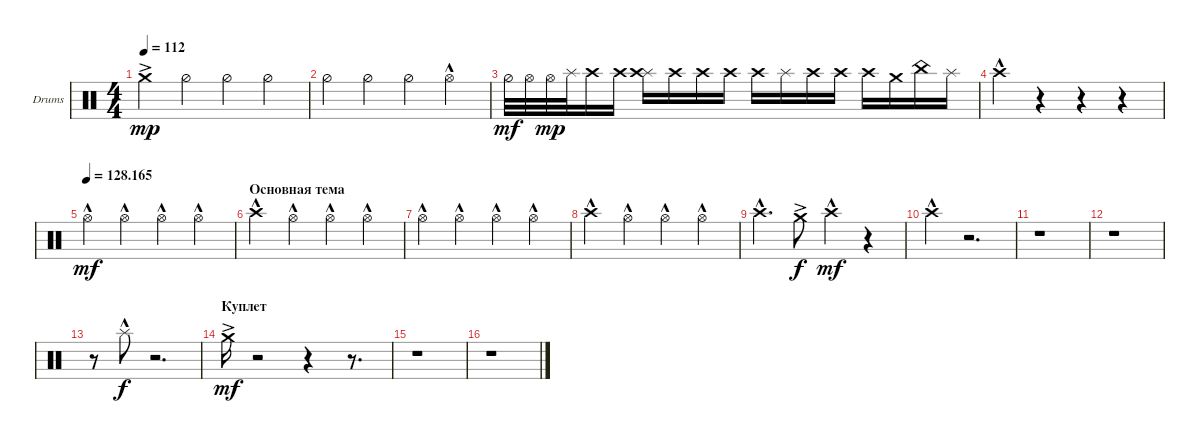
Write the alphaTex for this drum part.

\defaultSystemsLayout 4
\bracketExtendMode groupsimilarinstruments
\firstSystemTrackNameOrientation horizontal
\otherSystemsTrackNameOrientation horizontal
\track ("Drumkit" "Drums") {instrument percussion}
\staff {score}
\articulation defaults
\ts (4 4)
\tempo 112
\clef neutral
\scale
0.333333
\ks c "Crash medium (hit)"{ac}.4{dy mp} "Hi-Hat (half)".4 "Hi-Hat (half)".4 "Hi-Hat (half)".4
|
\scale
0.333333 "Hi-Hat (half)".4 "Hi-Hat (half)".4 "Hi-Hat (half)".4 "Hi-Hat (open)"{hac}.4 |
\scale
0.333333 "Hi-Hat (half)".32{dy mf} "Hi-Hat (open)".32 "Hi-Hat (open)".32{dy mp} "Splash (hit)".32 "Crash high (hit)".16 "Crash high (hit)".16 ("Splash (hit)" "Crash high (hit)").16 "Crash high (hit)".16 "Crash high (hit)".16 "Crash high (hit)".16 "Crash high (hit)".16 "Splash (hit)".16 "Crash high (hit)".16 "Crash high (hit)".16 "Crash high (hit)".16 "Crash medium (hit)".16 "China (hit)".16 "Splash (hit)".16 |
\scale
0.333333 "Crash high (hit)"{hac}.4 r.4 r.4 r.4 |
\tempo
128.165
\scale
0.333333 "Hi-Hat (open)"{hac}.4{dy mf} "Hi-Hat (open)"{hac}.4 "Hi-Hat (open)"{hac}.4 "Hi-Hat (open)"{hac}.4 |
\section ("" "Основная тема")
\scale
0.333333 "Crash high (hit)"{hac}.4 "Hi-Hat (open)"{hac}.4 "Hi-Hat (open)"{hac}.4 "Hi-Hat (open)"{hac}.4 |
\scale
0.333333 "Hi-Hat (open)"{hac}.4 "Hi-Hat (open)"{hac}.4 "Hi-Hat (open)"{hac}.4 "Hi-Hat (open)"{hac}.4 |
\scale
0.333333 "Crash high (hit)"{hac}.4 "Hi-Hat (open)"{hac}.4 "Hi-Hat (open)"{hac}.4 "Hi-Hat (open)"{hac}.4 |
\scale
0.333333 "Crash high (hit)"{hac}.4{d} "Crash medium (hit)"{ac}.8{dy f} "Crash high (hit)"{hac}.4{dy mf} r.4 |
\scale
0.333333 "Crash high (hit)"{hac}.4 r.2{d} |
\scale
0.333333 r.1 |
r.1 |
r.8 "Splash (hit)"{hac}.8{dy f} r.2{d} |
\section ("" "Куплет")
"Crash medium (hit)"{ac}.16{dy mf} r.2 r.4 r.8{d} |
r.1 |
r.1
